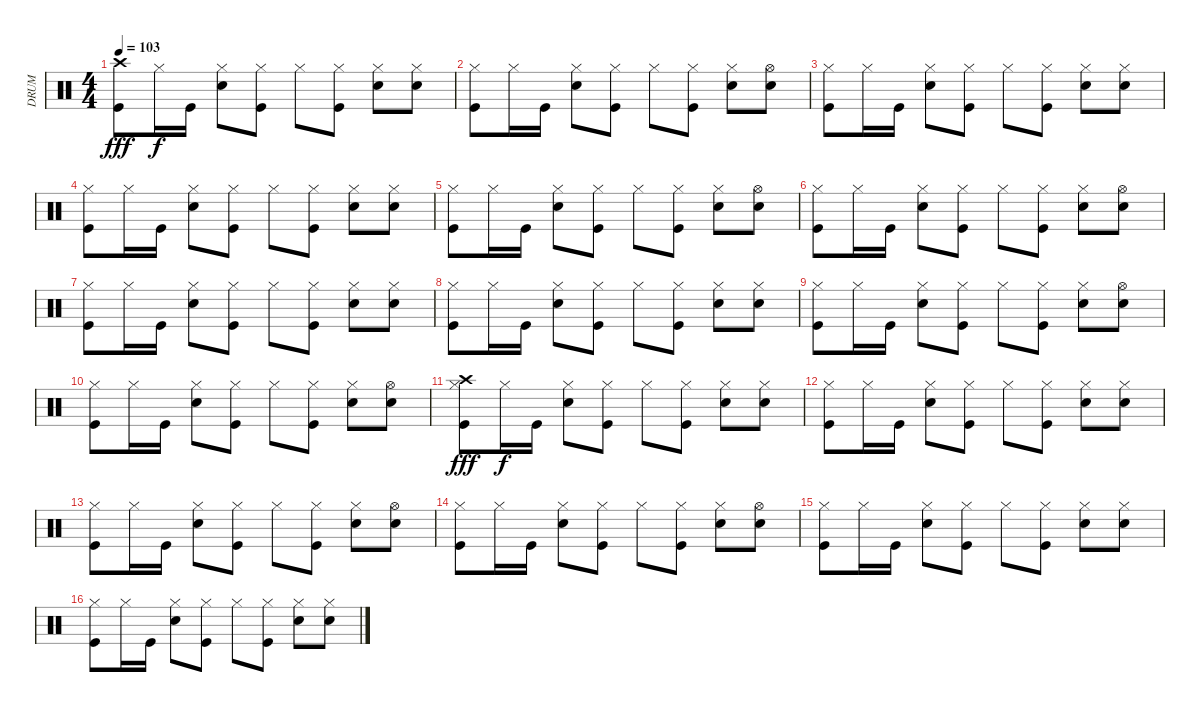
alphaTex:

\track ("DRUM" "DRUM") {instrument percussion}
\staff {score}
\articulation defaults
\ts (4 4)
\tempo 103
\clef neutral
\ks c
("Crash high (hit)" "Kick (hit)").8{dy fff} "Hi-Hat (closed)".16{dy f} "Kick (hit)".16 ("Snare (hit) 2" "Hi-Hat (closed)").8 ("Hi-Hat (closed)" "Kick (hit)").8 "Hi-Hat (closed)".8 ("Hi-Hat (closed)" "Kick (hit)").8 ("Snare (hit) 2" "Hi-Hat (closed)").8 ("Snare (hit) 2" "Hi-Hat (closed)").8 |
("Hi-Hat (closed)" "Kick (hit)").8 "Hi-Hat (closed)".16 "Kick (hit)".16 ("Snare (hit) 2" "Hi-Hat (closed)").8 ("Hi-Hat (closed)" "Kick (hit)").8 "Hi-Hat (closed)".8 ("Hi-Hat (closed)" "Kick (hit)").8 ("Snare (hit) 2" "Hi-Hat (closed)").8 ("Snare (hit) 2" "Hi-Hat (open)").8 |
("Hi-Hat (closed)" "Kick (hit)").8 "Hi-Hat (closed)".16 "Kick (hit)".16 ("Snare (hit) 2" "Hi-Hat (closed)").8 ("Hi-Hat (closed)" "Kick (hit)").8 "Hi-Hat (closed)".8 ("Hi-Hat (closed)" "Kick (hit)").8 ("Snare (hit) 2" "Hi-Hat (closed)").8 ("Snare (hit) 2" "Hi-Hat (closed)").8 |
("Hi-Hat (closed)" "Kick (hit)").8 "Hi-Hat (closed)".16 "Kick (hit)".16 ("Snare (hit) 2" "Hi-Hat (closed)").8 ("Hi-Hat (closed)" "Kick (hit)").8 "Hi-Hat (closed)".8 ("Hi-Hat (closed)" "Kick (hit)").8 ("Snare (hit) 2" "Hi-Hat (closed)").8 ("Snare (hit) 2" "Hi-Hat (closed)").8 |
("Hi-Hat (closed)" "Kick (hit)").8 "Hi-Hat (closed)".16 "Kick (hit)".16 ("Snare (hit) 2" "Hi-Hat (closed)").8 ("Hi-Hat (closed)" "Kick (hit)").8 "Hi-Hat (closed)".8 ("Hi-Hat (closed)" "Kick (hit)").8 ("Snare (hit) 2" "Hi-Hat (closed)").8 ("Snare (hit) 2" "Hi-Hat (open)").8 |
("Hi-Hat (closed)" "Kick (hit)").8 "Hi-Hat (closed)".16 "Kick (hit)".16 ("Snare (hit) 2" "Hi-Hat (closed)").8 ("Hi-Hat (closed)" "Kick (hit)").8 "Hi-Hat (closed)".8 ("Hi-Hat (closed)" "Kick (hit)").8 ("Snare (hit) 2" "Hi-Hat (closed)").8 ("Snare (hit) 2" "Hi-Hat (open)").8 |
("Hi-Hat (closed)" "Kick (hit)").8 "Hi-Hat (closed)".16 "Kick (hit)".16 ("Snare (hit) 2" "Hi-Hat (closed)").8 ("Hi-Hat (closed)" "Kick (hit)").8 "Hi-Hat (closed)".8 ("Hi-Hat (closed)" "Kick (hit)").8 ("Snare (hit) 2" "Hi-Hat (closed)").8 ("Snare (hit) 2" "Hi-Hat (closed)").8 |
("Hi-Hat (closed)" "Kick (hit)").8 "Hi-Hat (closed)".16 "Kick (hit)".16 ("Snare (hit) 2" "Hi-Hat (closed)").8 ("Hi-Hat (closed)" "Kick (hit)").8 "Hi-Hat (closed)".8 ("Hi-Hat (closed)" "Kick (hit)").8 ("Snare (hit) 2" "Hi-Hat (closed)").8 ("Snare (hit) 2" "Hi-Hat (closed)").8 |
("Hi-Hat (closed)" "Kick (hit)").8 "Hi-Hat (closed)".16 "Kick (hit)".16 ("Snare (hit) 2" "Hi-Hat (closed)").8 ("Hi-Hat (closed)" "Kick (hit)").8 "Hi-Hat (closed)".8 ("Hi-Hat (closed)" "Kick (hit)").8 ("Snare (hit) 2" "Hi-Hat (closed)").8 ("Snare (hit) 2" "Hi-Hat (open)").8 |
("Hi-Hat (closed)" "Kick (hit)").8 "Hi-Hat (closed)".16 "Kick (hit)".16 ("Snare (hit) 2" "Hi-Hat (closed)").8 ("Hi-Hat (closed)" "Kick (hit)").8 "Hi-Hat (closed)".8 ("Hi-Hat (closed)" "Kick (hit)").8 ("Snare (hit) 2" "Hi-Hat (closed)").8 ("Snare (hit) 2" "Hi-Hat (open)").8 |
("Crash high (hit)" "Hi-Hat (closed)" "Kick (hit)").8{dy fff} "Hi-Hat (closed)".16{dy f} "Kick (hit)".16 ("Snare (hit) 2" "Hi-Hat (closed)").8 ("Hi-Hat (closed)" "Kick (hit)").8 "Hi-Hat (closed)".8 ("Hi-Hat (closed)" "Kick (hit)").8 ("Snare (hit) 2" "Hi-Hat (closed)").8 ("Snare (hit) 2" "Hi-Hat (closed)").8 |
("Hi-Hat (closed)" "Kick (hit)").8 "Hi-Hat (closed)".16 "Kick (hit)".16 ("Snare (hit) 2" "Hi-Hat (closed)").8 ("Hi-Hat (closed)" "Kick (hit)").8 "Hi-Hat (closed)".8 ("Hi-Hat (closed)" "Kick (hit)").8 ("Snare (hit) 2" "Hi-Hat (closed)").8 ("Snare (hit) 2" "Hi-Hat (closed)").8 |
("Hi-Hat (closed)" "Kick (hit)").8 "Hi-Hat (closed)".16 "Kick (hit)".16 ("Snare (hit) 2" "Hi-Hat (closed)").8 ("Hi-Hat (closed)" "Kick (hit)").8 "Hi-Hat (closed)".8 ("Hi-Hat (closed)" "Kick (hit)").8 ("Snare (hit) 2" "Hi-Hat (closed)").8 ("Snare (hit) 2" "Hi-Hat (open)").8 |
("Hi-Hat (closed)" "Kick (hit)").8 "Hi-Hat (closed)".16 "Kick (hit)".16 ("Snare (hit) 2" "Hi-Hat (closed)").8 ("Hi-Hat (closed)" "Kick (hit)").8 "Hi-Hat (closed)".8 ("Hi-Hat (closed)" "Kick (hit)").8 ("Snare (hit) 2" "Hi-Hat (closed)").8 ("Snare (hit) 2" "Hi-Hat (open)").8 |
("Hi-Hat (closed)" "Kick (hit)").8 "Hi-Hat (closed)".16 "Kick (hit)".16 ("Snare (hit) 2" "Hi-Hat (closed)").8 ("Hi-Hat (closed)" "Kick (hit)").8 "Hi-Hat (closed)".8 ("Hi-Hat (closed)" "Kick (hit)").8 ("Snare (hit) 2" "Hi-Hat (closed)").8 ("Snare (hit) 2" "Hi-Hat (closed)").8 |
("Hi-Hat (closed)" "Kick (hit)").8 "Hi-Hat (closed)".16 "Kick (hit)".16 ("Snare (hit) 2" "Hi-Hat (closed)").8 ("Hi-Hat (closed)" "Kick (hit)").8 "Hi-Hat (closed)".8 ("Hi-Hat (closed)" "Kick (hit)").8 ("Snare (hit) 2" "Hi-Hat (closed)").8 ("Snare (hit) 2" "Hi-Hat (closed)").8
